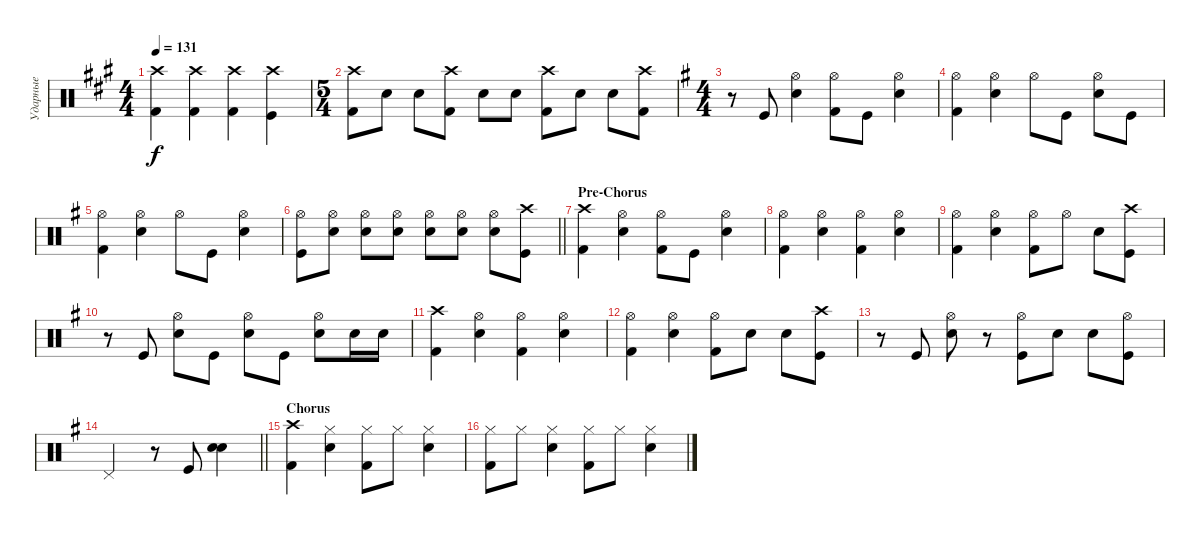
\track ("Ударные" "Ударные") {instrument percussion}
\staff {score}
\articulation defaults
\ts (4 4)
\tempo 131
\clef neutral
\ks f#minor
("Crash high (hit)" "Kick (hit) 2").4{dy f} ("Crash high (hit)" "Kick (hit) 2").4 ("Crash high (hit)" "Kick (hit) 2").4 ("Kick (hit)" "Crash high (hit)").4 |
\ts (5 4)
("Crash high (hit)" "Kick (hit) 2").8 "Snare (hit) 2".8 "Snare (hit) 2".8 ("Crash high (hit)" "Kick (hit) 2").8 "Snare (hit) 2".8 "Snare (hit) 2".8 ("Crash high (hit)" "Kick (hit) 2").8 "Snare (hit) 2".8 "Snare (hit) 2".8 ("Crash high (hit)" "Kick (hit) 2").8 |
\ts (4 4)
\ks eminor
r.8 "Kick (hit)".8 ("Hi-Hat (open)" "Snare (hit) 2").4 ("Hi-Hat (open)" "Kick (hit) 2").8 "Kick (hit)".8 ("Hi-Hat (open)" "Snare (hit) 2").4 |
("Hi-Hat (open)" "Kick (hit) 2").4 ("Hi-Hat (open)" "Snare (hit) 2").4 "Hi-Hat (open)".8 "Kick (hit)".8 ("Hi-Hat (open)" "Snare (hit) 2").8 "Kick (hit)".8 |
("Hi-Hat (open)" "Kick (hit) 2").4 ("Hi-Hat (open)" "Snare (hit) 2").4 "Hi-Hat (open)".8 "Kick (hit)".8 ("Hi-Hat (open)" "Snare (hit) 2").4 |
\barLineRight lightlight
("Kick (hit)" "Hi-Hat (open)").8 ("Snare (hit) 2" "Hi-Hat (open)").8 ("Snare (hit) 2" "Hi-Hat (open)").8 ("Snare (hit) 2" "Hi-Hat (open)").8 ("Snare (hit) 2" "Hi-Hat (open)").8 ("Snare (hit) 2" "Hi-Hat (open)").8 ("Snare (hit) 2" "Hi-Hat (open)").8 ("Kick (hit)" "Crash high (hit)").8 |
\section ("" "Pre-Chorus")
("Crash high (hit)" "Kick (hit) 2").4 ("Hi-Hat (open)" "Snare (hit) 2").4 ("Hi-Hat (open)" "Kick (hit) 2").8 "Kick (hit)".8 ("Hi-Hat (open)" "Snare (hit) 2").4 |
("Hi-Hat (open)" "Kick (hit) 2").4 ("Hi-Hat (open)" "Snare (hit) 2").4 ("Hi-Hat (open)" "Kick (hit) 2").4 ("Hi-Hat (open)" "Snare (hit) 2").4 |
("Hi-Hat (open)" "Kick (hit) 2").4 ("Hi-Hat (open)" "Snare (hit) 2").4 ("Hi-Hat (open)" "Kick (hit) 2").8 "Hi-Hat (open)".8 "Snare (hit) 2".8 ("Kick (hit)" "Crash high (hit)").8 |
r.8 "Kick (hit)".8 ("Hi-Hat (open)" "Snare (hit) 2").8 "Kick (hit)".8 ("Hi-Hat (open)" "Snare (hit) 2").8 "Kick (hit)".8 ("Hi-Hat (open)" "Snare (hit) 2").8 "Snare (hit) 2".16 "Snare (hit) 2".16 |
("Crash high (hit)" "Kick (hit) 2").4 ("Hi-Hat (open)" "Snare (hit) 2").4 ("Hi-Hat (open)" "Kick (hit) 2").4 ("Hi-Hat (open)" "Snare (hit) 2").4 |
("Hi-Hat (open)" "Kick (hit) 2").4 ("Hi-Hat (open)" "Snare (hit) 2").4 ("Hi-Hat (open)" "Kick (hit) 2").8 "Snare (hit) 2".8 "Snare (hit) 2".8 ("Kick (hit)" "Crash high (hit)").8 |
r.8 "Kick (hit)".8 ("Snare (hit) 2" "Hi-Hat (open)").8 r.8 ("Kick (hit)" "Hi-Hat (open)").8 "Snare (hit) 2".8 "Snare (hit) 2".8 ("Kick (hit)" "Hi-Hat (open)").8 |
\barLineRight lightlight "Pedal Hi-Hat (hit)".2
r.8 "Kick (hit)".8 ("Snare (hit) 2" "Snare (hit) 2").4{bd 480} |
\section ("" "Chorus")
("Crash high (hit)" "Kick (hit) 2").4 ("Hi-Hat (closed)" "Snare (hit) 2").4 ("Hi-Hat (closed)" "Kick (hit) 2").8 "Hi-Hat (closed)".8 ("Snare (hit) 2" "Hi-Hat (closed)").4 |
("Hi-Hat (closed)" "Kick (hit) 2").8 "Hi-Hat (closed)".8 ("Snare (hit) 2" "Hi-Hat (closed)").4 ("Hi-Hat (closed)" "Kick (hit) 2").8 "Hi-Hat (closed)".8 ("Snare (hit) 2" "Hi-Hat (closed)").4
